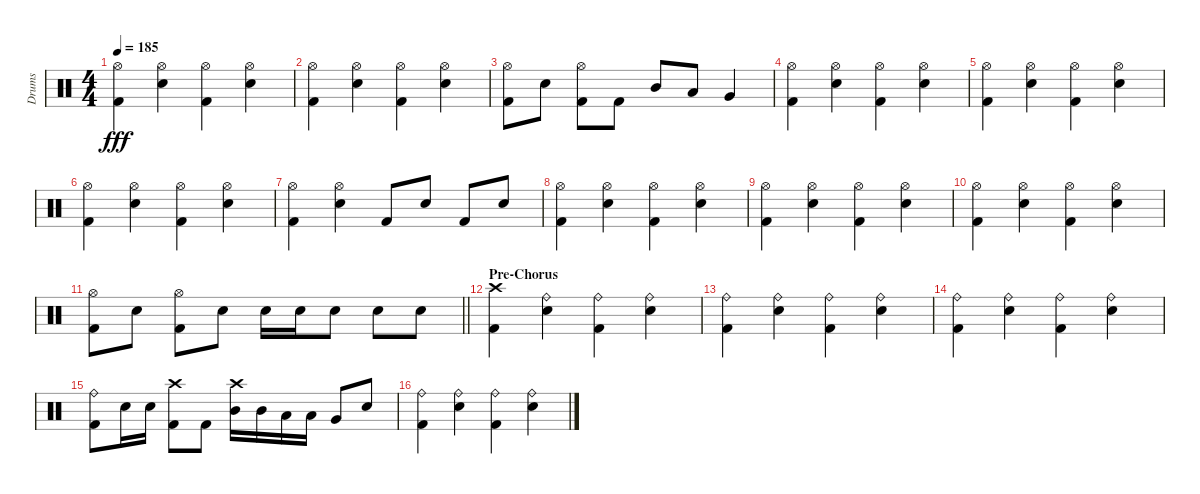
\track ("Drums" "Drums") {instrument percussion}
\staff {score}
\articulation defaults
\ts (4 4)
\tempo 185
\clef neutral
\ks c
("Hi-Hat (open)" "Kick (hit) 2").4{dy fff} ("Hi-Hat (open)" "Electric Snare (hit)").4 ("Hi-Hat (open)" "Kick (hit) 2").4 ("Hi-Hat (open)" "Electric Snare (hit)").4 |
("Hi-Hat (open)" "Kick (hit) 2").4 ("Hi-Hat (open)" "Electric Snare (hit)").4 ("Hi-Hat (open)" "Kick (hit) 2").4 ("Hi-Hat (open)" "Electric Snare (hit)").4 |
("Hi-Hat (open)" "Kick (hit) 2").8 "Electric Snare (hit)".8 ("Hi-Hat (open)" "Kick (hit) 2").8 "Kick (hit) 2".8 "Mid Tom (hit)".8 "Low Tom (hit)".8 "Very Low Tom (hit)".4 |
("Hi-Hat (open)" "Kick (hit) 2").4 ("Hi-Hat (open)" "Electric Snare (hit)").4 ("Hi-Hat (open)" "Kick (hit) 2").4 ("Hi-Hat (open)" "Electric Snare (hit)").4 |
("Hi-Hat (open)" "Kick (hit) 2").4 ("Hi-Hat (open)" "Electric Snare (hit)").4 ("Hi-Hat (open)" "Kick (hit) 2").4 ("Hi-Hat (open)" "Electric Snare (hit)").4 |
("Hi-Hat (open)" "Kick (hit) 2").4 ("Hi-Hat (open)" "Electric Snare (hit)").4 ("Hi-Hat (open)" "Kick (hit) 2").4 ("Hi-Hat (open)" "Electric Snare (hit)").4 |
("Hi-Hat (open)" "Kick (hit) 2").4 ("Hi-Hat (open)" "Electric Snare (hit)").4 "Kick (hit) 2".8 "Electric Snare (hit)".8 "Kick (hit) 2".8 "Electric Snare (hit)".8 |
("Hi-Hat (open)" "Kick (hit) 2").4 ("Hi-Hat (open)" "Electric Snare (hit)").4 ("Hi-Hat (open)" "Kick (hit) 2").4 ("Hi-Hat (open)" "Electric Snare (hit)").4 |
("Hi-Hat (open)" "Kick (hit) 2").4 ("Hi-Hat (open)" "Electric Snare (hit)").4 ("Hi-Hat (open)" "Kick (hit) 2").4 ("Hi-Hat (open)" "Electric Snare (hit)").4 |
("Hi-Hat (open)" "Kick (hit) 2").4 ("Hi-Hat (open)" "Electric Snare (hit)").4 ("Hi-Hat (open)" "Kick (hit) 2").4 ("Hi-Hat (open)" "Electric Snare (hit)").4 |
\barLineRight lightlight
("Hi-Hat (open)" "Kick (hit) 2").8 "Electric Snare (hit)".8 ("Hi-Hat (open)" "Kick (hit) 2").8 "Electric Snare (hit)".8 "Electric Snare (hit)".16 "Electric Snare (hit)".16 "Electric Snare (hit)".8 "Electric Snare (hit)".8 "Electric Snare (hit)".8 |
\section ("" "Pre-Chorus")
("Crash high (hit)" "Kick (hit) 2").4 ("Ride (bell)" "Electric Snare (hit)").4 ("Ride (bell)" "Kick (hit) 2").4 ("Ride (bell)" "Electric Snare (hit)").4 |
("Ride (bell)" "Kick (hit) 2").4 ("Ride (bell)" "Electric Snare (hit)").4 ("Ride (bell)" "Kick (hit) 2").4 ("Ride (bell)" "Electric Snare (hit)").4 |
("Ride (bell)" "Kick (hit) 2").4 ("Ride (bell)" "Electric Snare (hit)").4 ("Ride (bell)" "Kick (hit) 2").4 ("Ride (bell)" "Electric Snare (hit)").4 |
("Ride (bell)" "Kick (hit) 2").8 "Electric Snare (hit)".16 "Electric Snare (hit)".16 ("Crash high (hit)" "Kick (hit) 2").8 "Kick (hit) 2".8 ("Crash high (hit)" "Mid Tom (hit)").16 "Mid Tom (hit)".16 "Low Tom (hit)".16 "Low Tom (hit)".16 "Very Low Tom (hit)".8 "Electric Snare (hit)".8 |
("Ride (bell)" "Kick (hit) 2").4 ("Ride (bell)" "Electric Snare (hit)").4 ("Ride (bell)" "Kick (hit) 2").4 ("Ride (bell)" "Electric Snare (hit)").4
